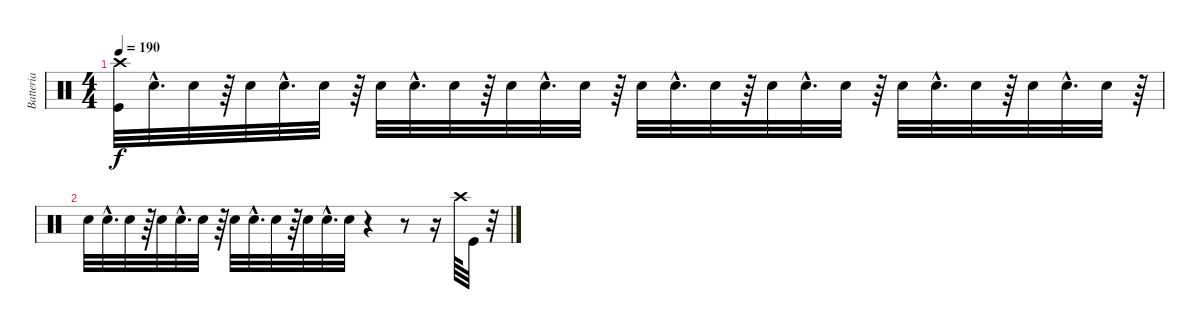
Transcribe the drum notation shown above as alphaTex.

\track ("Batteria" "Batteria") {instrument percussion}
\staff {score}
\articulation defaults
\ts (4 4)
\tempo 190
\clef neutral
\ks c
("Crash high (hit)" "Kick (hit)").32{dy f} "Snare (hit) 2"{hac}.32{d} "Snare (hit) 2".32 r.64 "Snare (hit) 2".32 "Snare (hit) 2"{hac}.32{d} "Snare (hit) 2".32 r.64 "Snare (hit) 2".32 "Snare (hit) 2"{hac}.32{d} "Snare (hit) 2".32 r.64 "Snare (hit) 2".32 "Snare (hit) 2"{hac}.32{d} "Snare (hit) 2".32 r.64 "Snare (hit) 2".32 "Snare (hit) 2"{hac}.32{d} "Snare (hit) 2".32 r.64 "Snare (hit) 2".32 "Snare (hit) 2"{hac}.32{d} "Snare (hit) 2".32 r.64 "Snare (hit) 2".32 "Snare (hit) 2"{hac}.32{d} "Snare (hit) 2".32 r.64 "Snare (hit) 2".32 "Snare (hit) 2"{hac}.32{d} "Snare (hit) 2".32 r.64 |
"Snare (hit) 2".32 "Snare (hit) 2"{hac}.32{d} "Snare (hit) 2".32 r.64 "Snare (hit) 2".32 "Snare (hit) 2"{hac}.32{d} "Snare (hit) 2".32 r.64 "Snare (hit) 2".32 "Snare (hit) 2"{hac}.32{d} "Snare (hit) 2".32 r.64 "Snare (hit) 2".32 "Snare (hit) 2"{hac}.32{d} "Snare (hit) 2".32 r.4 r.8 r.16 "Crash high (hit)".64 "Kick (hit)".32 r.32
